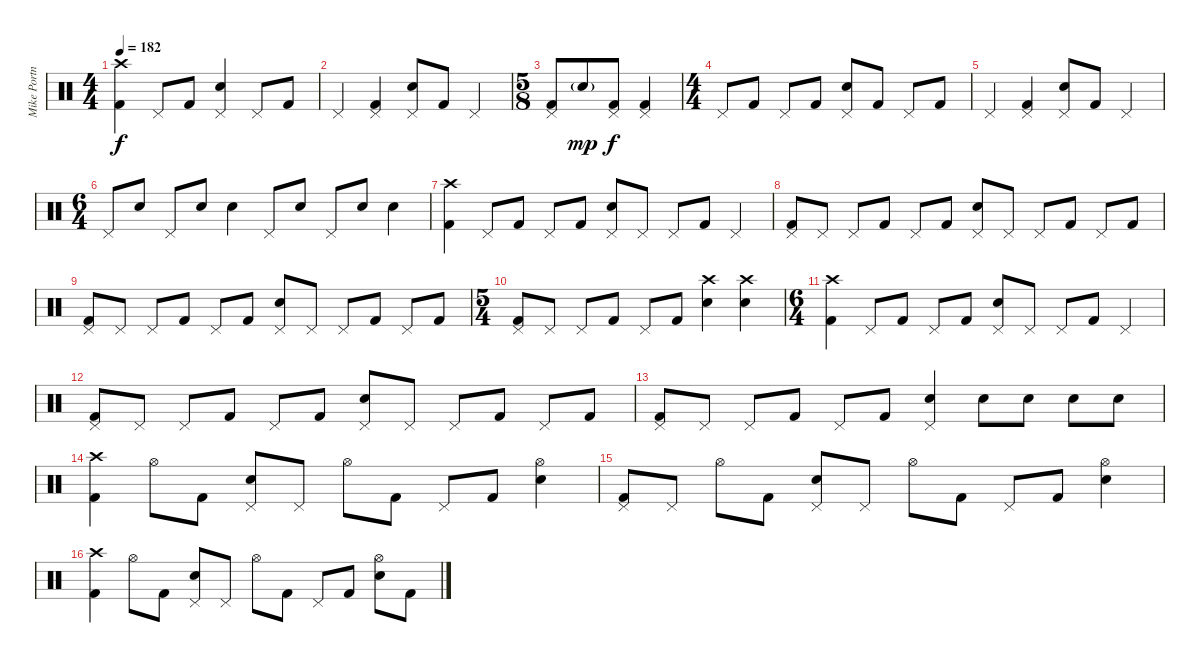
\track ("Mike Portnoy" "Mike Portn") {instrument percussion}
\staff {score}
\articulation defaults
\ts (4 4)
\tempo 182
\clef neutral
\ks c
("Crash high (hit)" "Kick (hit) 2").4{dy f} "Pedal Hi-Hat (hit)".8 "Kick (hit) 2".8 ("Pedal Hi-Hat (hit)" "Electric Snare (hit)").4 "Pedal Hi-Hat (hit)".8 "Kick (hit) 2".8 |
"Pedal Hi-Hat (hit)".4 ("Pedal Hi-Hat (hit)" "Kick (hit) 2").4 ("Pedal Hi-Hat (hit)" "Electric Snare (hit)").8 "Kick (hit) 2".8 "Pedal Hi-Hat (hit)".4 |
\ts (5 8)
("Pedal Hi-Hat (hit)" "Kick (hit) 2").8 "Electric Snare (hit)"{g}.8{dy mp} ("Pedal Hi-Hat (hit)" "Kick (hit) 2").8{dy f} ("Pedal Hi-Hat (hit)" "Kick (hit) 2").4 |
\ts (4 4)
"Pedal Hi-Hat (hit)".8 "Kick (hit) 2".8 "Pedal Hi-Hat (hit)".8 "Kick (hit) 2".8 ("Pedal Hi-Hat (hit)" "Electric Snare (hit)").8 "Kick (hit) 2".8 "Pedal Hi-Hat (hit)".8 "Kick (hit) 2".8 |
"Pedal Hi-Hat (hit)".4 ("Pedal Hi-Hat (hit)" "Kick (hit) 2").4 ("Pedal Hi-Hat (hit)" "Electric Snare (hit)").8 "Kick (hit) 2".8 "Pedal Hi-Hat (hit)".4 |
\ts (6 4)
"Pedal Hi-Hat (hit)".8 "Electric Snare (hit)".8 "Pedal Hi-Hat (hit)".8 "Electric Snare (hit)".8 "Electric Snare (hit)".4 "Pedal Hi-Hat (hit)".8 "Electric Snare (hit)".8 "Pedal Hi-Hat (hit)".8 "Electric Snare (hit)".8 "Electric Snare (hit)".4 |
("Crash high (hit)" "Kick (hit) 2").4 "Pedal Hi-Hat (hit)".8 "Kick (hit) 2".8 "Pedal Hi-Hat (hit)".8 "Kick (hit) 2".8 ("Pedal Hi-Hat (hit)" "Electric Snare (hit)").8 "Pedal Hi-Hat (hit)".8 "Pedal Hi-Hat (hit)".8 "Kick (hit) 2".8 "Pedal Hi-Hat (hit)".4 |
("Pedal Hi-Hat (hit)" "Kick (hit) 2").8 "Pedal Hi-Hat (hit)".8 "Pedal Hi-Hat (hit)".8 "Kick (hit) 2".8 "Pedal Hi-Hat (hit)".8 "Kick (hit) 2".8 ("Pedal Hi-Hat (hit)" "Electric Snare (hit)").8 "Pedal Hi-Hat (hit)".8 "Pedal Hi-Hat (hit)".8 "Kick (hit) 2".8 "Pedal Hi-Hat (hit)".8 "Kick (hit) 2".8 |
("Pedal Hi-Hat (hit)" "Kick (hit) 2").8 "Pedal Hi-Hat (hit)".8 "Pedal Hi-Hat (hit)".8 "Kick (hit) 2".8 "Pedal Hi-Hat (hit)".8 "Kick (hit) 2".8 ("Pedal Hi-Hat (hit)" "Electric Snare (hit)").8 "Pedal Hi-Hat (hit)".8 "Pedal Hi-Hat (hit)".8 "Kick (hit) 2".8 "Pedal Hi-Hat (hit)".8 "Kick (hit) 2".8 |
\ts (5 4)
("Pedal Hi-Hat (hit)" "Kick (hit) 2").8 "Pedal Hi-Hat (hit)".8 "Pedal Hi-Hat (hit)".8 "Kick (hit) 2".8 "Pedal Hi-Hat (hit)".8 "Kick (hit) 2".8 ("Crash high (hit)" "Electric Snare (hit)").4 ("Crash high (hit)" "Electric Snare (hit)").4 |
\ts (6 4)
("Crash high (hit)" "Kick (hit) 2").4 "Pedal Hi-Hat (hit)".8 "Kick (hit) 2".8 "Pedal Hi-Hat (hit)".8 "Kick (hit) 2".8 ("Pedal Hi-Hat (hit)" "Electric Snare (hit)").8 "Pedal Hi-Hat (hit)".8 "Pedal Hi-Hat (hit)".8 "Kick (hit) 2".8 "Pedal Hi-Hat (hit)".4 |
("Pedal Hi-Hat (hit)" "Kick (hit) 2").8 "Pedal Hi-Hat (hit)".8 "Pedal Hi-Hat (hit)".8 "Kick (hit) 2".8 "Pedal Hi-Hat (hit)".8 "Kick (hit) 2".8 ("Pedal Hi-Hat (hit)" "Electric Snare (hit)").8 "Pedal Hi-Hat (hit)".8 "Pedal Hi-Hat (hit)".8 "Kick (hit) 2".8 "Pedal Hi-Hat (hit)".8 "Kick (hit) 2".8 |
("Pedal Hi-Hat (hit)" "Kick (hit) 2").8 "Pedal Hi-Hat (hit)".8 "Pedal Hi-Hat (hit)".8 "Kick (hit) 2".8 "Pedal Hi-Hat (hit)".8 "Kick (hit) 2".8 ("Pedal Hi-Hat (hit)" "Electric Snare (hit)").4 "Electric Snare (hit)".8 "Electric Snare (hit)".8 "Electric Snare (hit)".8 "Electric Snare (hit)".8 |
("Crash high (hit)" "Kick (hit) 2").4 "Hi-Hat (open)".8 "Kick (hit) 2".8 ("Pedal Hi-Hat (hit)" "Electric Snare (hit)").8 "Pedal Hi-Hat (hit)".8 "Hi-Hat (open)".8 "Kick (hit) 2".8 "Pedal Hi-Hat (hit)".8 "Kick (hit) 2".8 ("Hi-Hat (open)" "Electric Snare (hit)").4 |
("Pedal Hi-Hat (hit)" "Kick (hit) 2").8 "Pedal Hi-Hat (hit)".8 "Hi-Hat (open)".8 "Kick (hit) 2".8 ("Pedal Hi-Hat (hit)" "Electric Snare (hit)").8 "Pedal Hi-Hat (hit)".8 "Hi-Hat (open)".8 "Kick (hit) 2".8 "Pedal Hi-Hat (hit)".8 "Kick (hit) 2".8 ("Hi-Hat (open)" "Electric Snare (hit)").4 |
("Crash high (hit)" "Kick (hit) 2").4 "Hi-Hat (open)".8 "Kick (hit) 2".8 ("Pedal Hi-Hat (hit)" "Electric Snare (hit)").8 "Pedal Hi-Hat (hit)".8 "Hi-Hat (open)".8 "Kick (hit) 2".8 "Pedal Hi-Hat (hit)".8 "Kick (hit) 2".8 ("Hi-Hat (open)" "Electric Snare (hit)").8 "Kick (hit) 2".8
